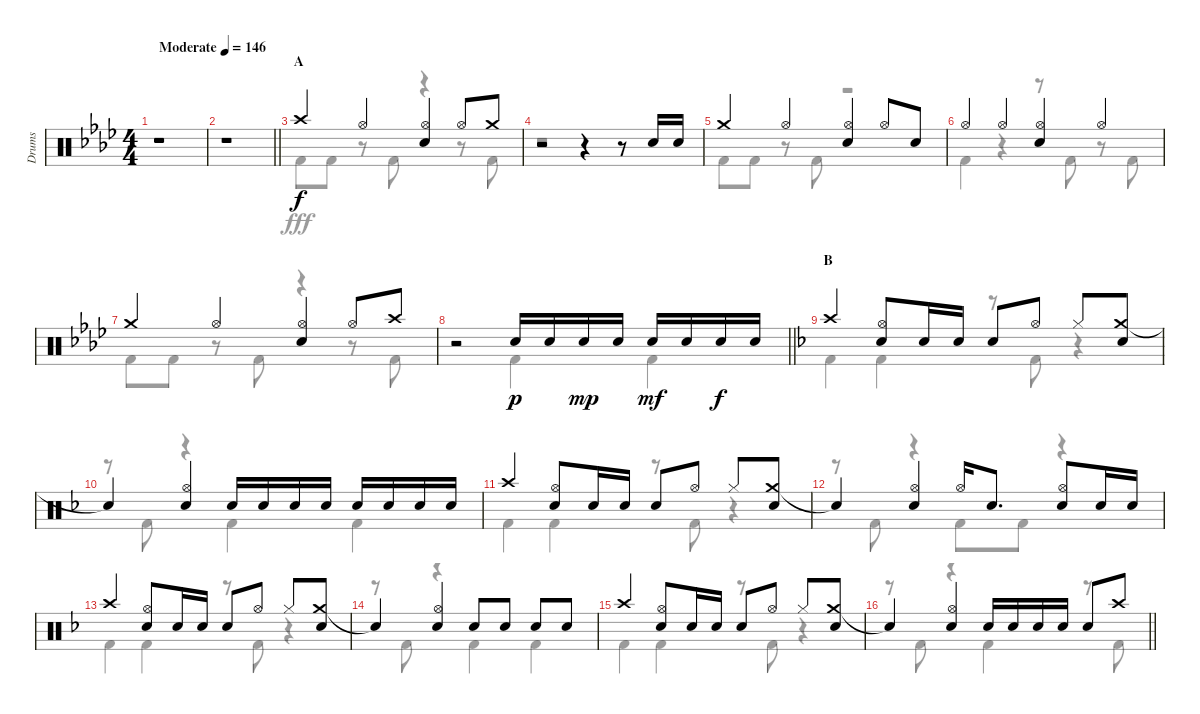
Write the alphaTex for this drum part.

\track ("Drums" "Drums") {instrument percussion}
\staff {score}
\articulation defaults
\voice
\ts (4 4)
\tempo (146 "Moderate")
\clef neutral
\ks ab
r.1{dy f} |
\barLineRight lightlight
r.1 |
\section ("" "A")
"Crash high (hit)".4 "Hi-Hat (open)".4 ("Hi-Hat (open)" "Snare (hit) 2").4 "Hi-Hat (open)".8 "Crash medium (hit)".8 |
r.2 r.4 r.8 "Snare (hit) 2".16 "Snare (hit) 2".16 |
"Crash medium (hit)".4 "Hi-Hat (open)".4 ("Hi-Hat (open)" "Snare (hit) 2").4 "Hi-Hat (open)".8 "Snare (hit) 2".8 |
"Hi-Hat (open)".4 "Hi-Hat (open)".4 ("Hi-Hat (open)" "Snare (hit) 2").4 "Hi-Hat (open)".4 |
"Crash medium (hit)".4 "Hi-Hat (open)".4 ("Hi-Hat (open)" "Snare (hit) 2").4 "Hi-Hat (open)".8 "Crash high (hit)".8 |
\barLineRight lightlight
r.2 "Snare (hit) 2".16{dy p} "Snare (hit) 2".16 "Snare (hit) 2".16{dy mp} "Snare (hit) 2".16 "Snare (hit) 2".16{dy mf} "Snare (hit) 2".16 "Snare (hit) 2".16{dy f} "Snare (hit) 2".16 |
\section ("" "B")
\ks f "Crash high (hit)".4
("Hi-Hat (open)" "Snare (hit) 2").8 "Snare (hit) 2".16 "Snare (hit) 2".16 "Snare (hit) 2".8 "Hi-Hat (open)".8 "Hi-Hat (closed)".8 ("Crash medium (hit)" "Snare (hit) 2").8 |
"Snare (hit)"{t}.4 ("Hi-Hat (open)" "Snare (hit) 2").4 "Snare (hit) 2".16 "Snare (hit) 2".16 "Snare (hit) 2".16 "Snare (hit) 2".16 "Snare (hit) 2".16 "Snare (hit) 2".16 "Snare (hit) 2".16 "Snare (hit) 2".16 |
"Crash high (hit)".4 ("Hi-Hat (open)" "Snare (hit) 2").8 "Snare (hit) 2".16 "Snare (hit) 2".16 "Snare (hit) 2".8 "Hi-Hat (open)".8 "Hi-Hat (closed)".8 ("Crash medium (hit)" "Snare (hit) 2").8 |
"Snare (hit)"{t}.4 ("Hi-Hat (open)" "Snare (hit) 2").4 "Hi-Hat (open)".16 "Snare (hit) 2".8{d} ("Hi-Hat (open)" "Snare (hit) 2").8 "Snare (hit) 2".16 "Snare (hit) 2".16 |
"Crash high (hit)".4 ("Hi-Hat (open)" "Snare (hit) 2").8 "Snare (hit) 2".16 "Snare (hit) 2".16 "Snare (hit) 2".8 "Hi-Hat (open)".8 "Hi-Hat (closed)".8 ("Crash medium (hit)" "Snare (hit) 2").8 |
"Snare (hit)"{t}.4 ("Hi-Hat (open)" "Snare (hit) 2").4 "Snare (hit) 2".8 "Snare (hit) 2".8 "Snare (hit) 2".8 "Snare (hit) 2".8 |
"Crash high (hit)".4 ("Hi-Hat (open)" "Snare (hit) 2").8 "Snare (hit) 2".16 "Snare (hit) 2".16 "Snare (hit) 2".8 "Hi-Hat (open)".8 "Hi-Hat (closed)".8 ("Crash medium (hit)" "Snare (hit) 2").8 |
\barLineRight lightlight "Snare (hit)"{t}.4
("Hi-Hat (open)" "Snare (hit) 2").4 "Snare (hit) 2".16 "Snare (hit) 2".16 "Snare (hit) 2".16 "Snare (hit) 2".16 "Snare (hit) 2".8 "Crash high (hit)".8
\voice
\clef neutral
\ottava regular
\simile none
\ks ab
r.1{dy fff} |
\barLineRight lightlight
r.1 |
"Kick (hit) 2".8 "Kick (hit) 2".8 r.8 "Kick (hit) 2".8 r.4 r.8 "Kick (hit) 2".8 |
r.1 |
"Kick (hit) 2".8 "Kick (hit) 2".8 r.8 "Kick (hit) 2".8 r.2 |
"Kick (hit) 2".4 r.4 r.8 "Kick (hit) 2".8 r.8 "Kick (hit) 2".8 |
"Kick (hit) 2".8 "Kick (hit) 2".8 r.8 "Kick (hit) 2".8 r.4 r.8 "Kick (hit) 2".8 |
\barLineRight lightlight
r.2 "Kick (hit) 2".4 "Kick (hit) 2".4 |
\ks f "Kick (hit) 2".4 "Kick (hit) 2".4
r.8 "Kick (hit) 2".8 r.4 |
r.8 "Kick (hit) 2".8 r.4 "Kick (hit) 2".4 "Kick (hit) 2".4 |
"Kick (hit) 2".4 "Kick (hit) 2".4 r.8 "Kick (hit) 2".8 r.4 |
r.8 "Kick (hit) 2".8 r.4 "Kick (hit) 2".8 "Kick (hit) 2".8 r.4 |
"Kick (hit) 2".4 "Kick (hit) 2".4 r.8 "Kick (hit) 2".8 r.4 |
r.8 "Kick (hit) 2".8 r.4 "Kick (hit) 2".4 "Kick (hit) 2".4 |
"Kick (hit) 2".4 "Kick (hit) 2".4 r.8 "Kick (hit) 2".8 r.4 |
\barLineRight lightlight
r.8 "Kick (hit) 2".8 r.4 "Kick (hit) 2".4 r.8 "Kick (hit) 2".8
